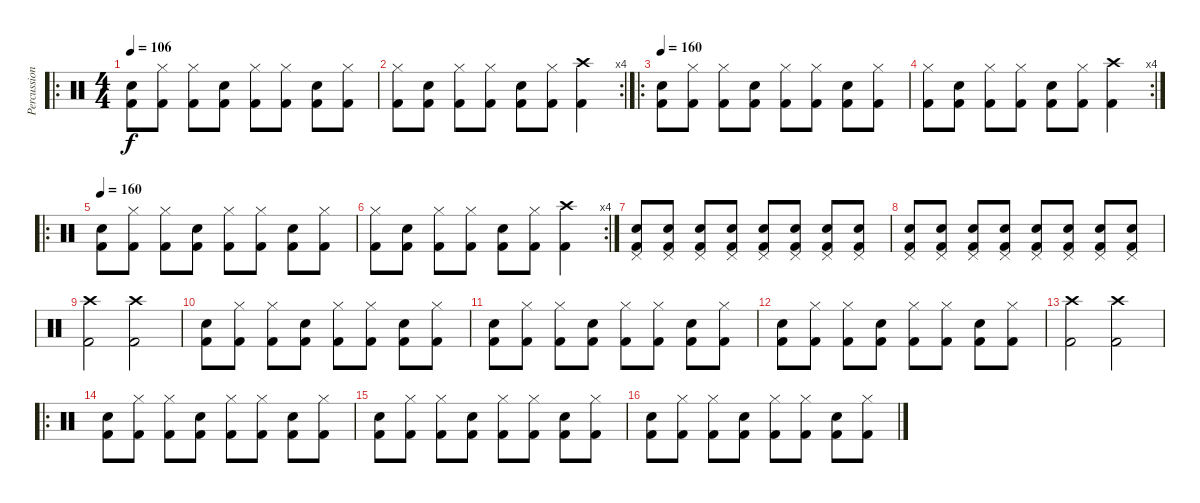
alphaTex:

\track ("Percussion" "Percussion") {instrument percussion}
\staff {score}
\articulation defaults
\ro
\ts (4 4)
\tempo 106
\tempo 160
\tempo 106
\clef neutral
\ks c
("Electric Snare (hit)" "Kick (hit) 2").8{dy f} ("Hi-Hat (closed)" "Kick (hit) 2").8 ("Hi-Hat (closed)" "Kick (hit) 2").8 ("Electric Snare (hit)" "Kick (hit) 2").8 ("Hi-Hat (closed)" "Kick (hit) 2").8 ("Hi-Hat (closed)" "Kick (hit) 2").8 ("Electric Snare (hit)" "Kick (hit) 2").8 ("Hi-Hat (closed)" "Kick (hit) 2").8 |
\rc 4
("Hi-Hat (closed)" "Kick (hit) 2").8 ("Electric Snare (hit)" "Kick (hit) 2").8 ("Hi-Hat (closed)" "Kick (hit) 2").8 ("Hi-Hat (closed)" "Kick (hit) 2").8 ("Electric Snare (hit)" "Kick (hit) 2").8 ("Hi-Hat (closed)" "Kick (hit) 2").8 ("Crash high (hit)" "Kick (hit) 2").4 |
\ro
\tempo 160
("Electric Snare (hit)" "Kick (hit) 2").8 ("Hi-Hat (closed)" "Kick (hit) 2").8 ("Hi-Hat (closed)" "Kick (hit) 2").8 ("Electric Snare (hit)" "Kick (hit) 2").8 ("Hi-Hat (closed)" "Kick (hit) 2").8 ("Hi-Hat (closed)" "Kick (hit) 2").8 ("Electric Snare (hit)" "Kick (hit) 2").8 ("Hi-Hat (closed)" "Kick (hit) 2").8 |
\rc 4
("Hi-Hat (closed)" "Kick (hit) 2").8 ("Electric Snare (hit)" "Kick (hit) 2").8 ("Hi-Hat (closed)" "Kick (hit) 2").8 ("Hi-Hat (closed)" "Kick (hit) 2").8 ("Electric Snare (hit)" "Kick (hit) 2").8 ("Hi-Hat (closed)" "Kick (hit) 2").8 ("Crash high (hit)" "Kick (hit) 2").4 |
\ro
\tempo 160
("Electric Snare (hit)" "Kick (hit) 2").8 ("Hi-Hat (closed)" "Kick (hit) 2").8 ("Hi-Hat (closed)" "Kick (hit) 2").8 ("Electric Snare (hit)" "Kick (hit) 2").8 ("Hi-Hat (closed)" "Kick (hit) 2").8 ("Hi-Hat (closed)" "Kick (hit) 2").8 ("Electric Snare (hit)" "Kick (hit) 2").8 ("Hi-Hat (closed)" "Kick (hit) 2").8 |
\rc 4
("Hi-Hat (closed)" "Kick (hit) 2").8 ("Electric Snare (hit)" "Kick (hit) 2").8 ("Hi-Hat (closed)" "Kick (hit) 2").8 ("Hi-Hat (closed)" "Kick (hit) 2").8 ("Electric Snare (hit)" "Kick (hit) 2").8 ("Hi-Hat (closed)" "Kick (hit) 2").8 ("Crash high (hit)" "Kick (hit) 2").4 |
("Pedal Hi-Hat (hit)" "Electric Snare (hit)" "Kick (hit) 2").8 ("Pedal Hi-Hat (hit)" "Electric Snare (hit)" "Kick (hit) 2").8 ("Pedal Hi-Hat (hit)" "Electric Snare (hit)" "Kick (hit) 2").8 ("Pedal Hi-Hat (hit)" "Electric Snare (hit)" "Kick (hit) 2").8 ("Pedal Hi-Hat (hit)" "Electric Snare (hit)" "Kick (hit) 2").8 ("Pedal Hi-Hat (hit)" "Electric Snare (hit)" "Kick (hit) 2").8 ("Pedal Hi-Hat (hit)" "Electric Snare (hit)" "Kick (hit) 2").8 ("Pedal Hi-Hat (hit)" "Electric Snare (hit)" "Kick (hit) 2").8 |
("Pedal Hi-Hat (hit)" "Electric Snare (hit)" "Kick (hit) 2").8 ("Pedal Hi-Hat (hit)" "Electric Snare (hit)" "Kick (hit) 2").8 ("Pedal Hi-Hat (hit)" "Electric Snare (hit)" "Kick (hit) 2").8 ("Pedal Hi-Hat (hit)" "Electric Snare (hit)" "Kick (hit) 2").8 ("Pedal Hi-Hat (hit)" "Electric Snare (hit)" "Kick (hit) 2").8 ("Pedal Hi-Hat (hit)" "Electric Snare (hit)" "Kick (hit) 2").8 ("Pedal Hi-Hat (hit)" "Electric Snare (hit)" "Kick (hit) 2").8 ("Pedal Hi-Hat (hit)" "Electric Snare (hit)" "Kick (hit) 2").8 |
("Crash high (hit)" "Kick (hit) 2").2 ("Crash high (hit)" "Kick (hit) 2").2 |
("Electric Snare (hit)" "Kick (hit) 2").8 ("Hi-Hat (closed)" "Kick (hit) 2").8 ("Hi-Hat (closed)" "Kick (hit) 2").8 ("Electric Snare (hit)" "Kick (hit) 2").8 ("Hi-Hat (closed)" "Kick (hit) 2").8 ("Hi-Hat (closed)" "Kick (hit) 2").8 ("Electric Snare (hit)" "Kick (hit) 2").8 ("Hi-Hat (closed)" "Kick (hit) 2").8 |
("Electric Snare (hit)" "Kick (hit) 2").8 ("Hi-Hat (closed)" "Kick (hit) 2").8 ("Hi-Hat (closed)" "Kick (hit) 2").8 ("Electric Snare (hit)" "Kick (hit) 2").8 ("Hi-Hat (closed)" "Kick (hit) 2").8 ("Hi-Hat (closed)" "Kick (hit) 2").8 ("Electric Snare (hit)" "Kick (hit) 2").8 ("Hi-Hat (closed)" "Kick (hit) 2").8 |
("Electric Snare (hit)" "Kick (hit) 2").8 ("Hi-Hat (closed)" "Kick (hit) 2").8 ("Hi-Hat (closed)" "Kick (hit) 2").8 ("Electric Snare (hit)" "Kick (hit) 2").8 ("Hi-Hat (closed)" "Kick (hit) 2").8 ("Hi-Hat (closed)" "Kick (hit) 2").8 ("Electric Snare (hit)" "Kick (hit) 2").8 ("Hi-Hat (closed)" "Kick (hit) 2").8 |
("Crash high (hit)" "Kick (hit) 2").2 ("Crash high (hit)" "Kick (hit) 2").2 |
\ro
("Electric Snare (hit)" "Kick (hit) 2").8 ("Hi-Hat (closed)" "Kick (hit) 2").8 ("Hi-Hat (closed)" "Kick (hit) 2").8 ("Electric Snare (hit)" "Kick (hit) 2").8 ("Hi-Hat (closed)" "Kick (hit) 2").8 ("Hi-Hat (closed)" "Kick (hit) 2").8 ("Electric Snare (hit)" "Kick (hit) 2").8 ("Hi-Hat (closed)" "Kick (hit) 2").8 |
("Electric Snare (hit)" "Kick (hit) 2").8 ("Hi-Hat (closed)" "Kick (hit) 2").8 ("Hi-Hat (closed)" "Kick (hit) 2").8 ("Electric Snare (hit)" "Kick (hit) 2").8 ("Hi-Hat (closed)" "Kick (hit) 2").8 ("Hi-Hat (closed)" "Kick (hit) 2").8 ("Electric Snare (hit)" "Kick (hit) 2").8 ("Hi-Hat (closed)" "Kick (hit) 2").8 |
("Electric Snare (hit)" "Kick (hit) 2").8 ("Hi-Hat (closed)" "Kick (hit) 2").8 ("Hi-Hat (closed)" "Kick (hit) 2").8 ("Electric Snare (hit)" "Kick (hit) 2").8 ("Hi-Hat (closed)" "Kick (hit) 2").8 ("Hi-Hat (closed)" "Kick (hit) 2").8 ("Electric Snare (hit)" "Kick (hit) 2").8 ("Hi-Hat (closed)" "Kick (hit) 2").8
